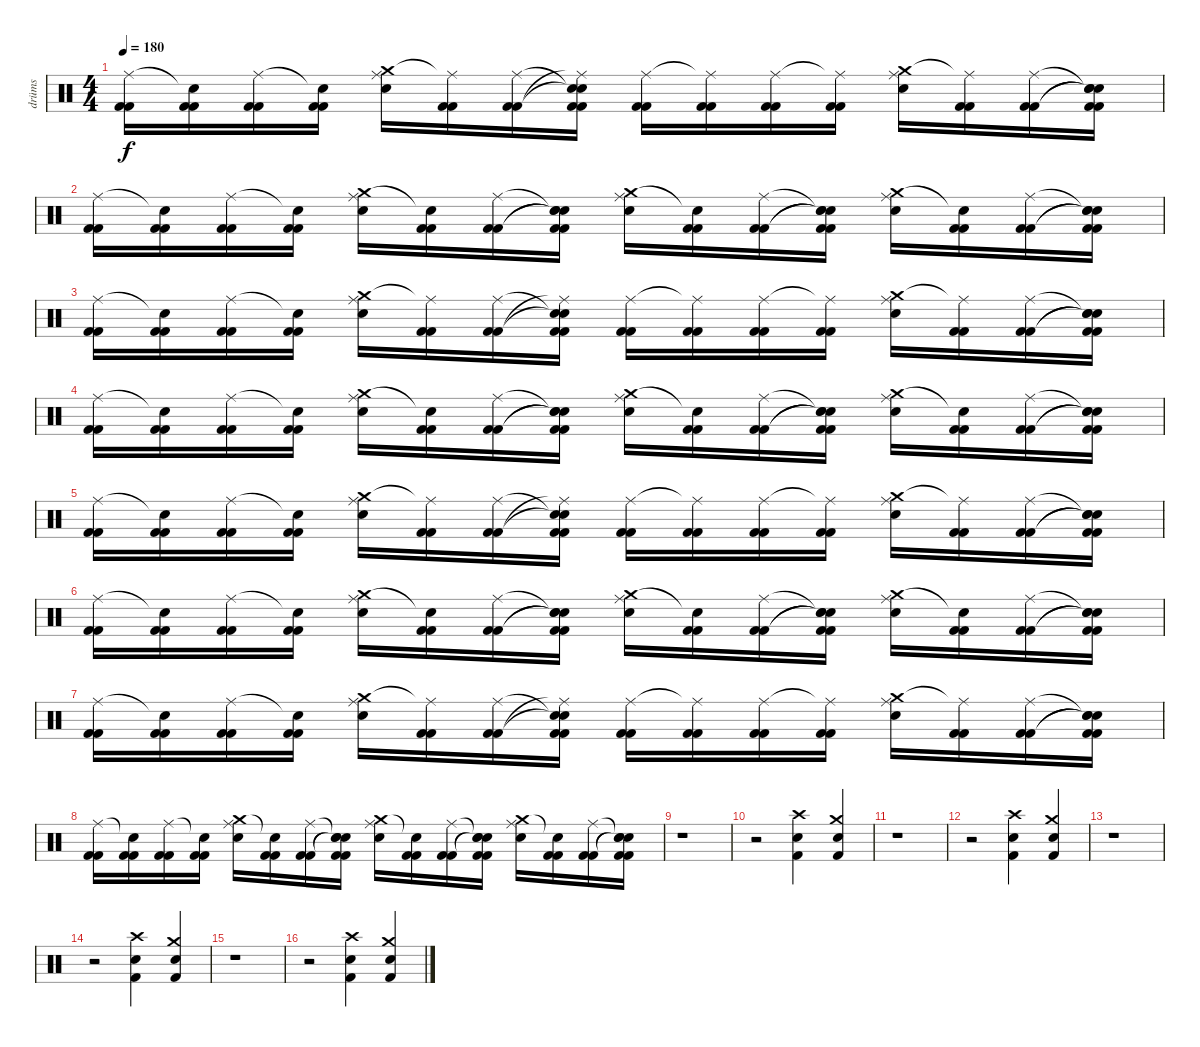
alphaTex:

\track ("drüms" "drüms") {instrument percussion}
\staff {score}
\articulation defaults
\ts (4 4)
\tempo 180
\clef neutral
\ks c
("Ride (middle)" "Kick (hit) 2" "Kick (hit) 2").16{dy f} ("Snare (hit)"{t} "Kick (hit) 2" "Kick (hit) 2").16 ("Ride (middle)" "Kick (hit) 2" "Kick (hit) 2").16 ("Snare (hit)"{t} "Kick (hit) 2" "Kick (hit) 2").16 ("Crash medium (hit)" "Electric Snare (hit)" "Ride (middle)").16 ("Ride (middle)"{t} "Kick (hit) 2" "Kick (hit) 2").16 ("Ride (middle)" "Kick (hit) 2" "Kick (hit) 2").16 ("Snare (hit)"{t} "Snare (hit)"{t} "Ride (middle)"{t} "Kick (hit) 2" "Kick (hit) 2").16 ("Ride (middle)" "Kick (hit) 2" "Kick (hit) 2").16 ("Ride (middle)"{t} "Kick (hit) 2" "Kick (hit) 2").16 ("Ride (middle)" "Kick (hit) 2" "Kick (hit) 2").16 ("Ride (middle)"{t} "Kick (hit) 2" "Kick (hit) 2").16 ("Crash medium (hit)" "Electric Snare (hit)" "Ride (middle)").16 ("Ride (middle)"{t} "Kick (hit) 2" "Kick (hit) 2").16 ("Ride (middle)" "Kick (hit) 2" "Kick (hit) 2").16 ("Snare (hit)"{t} "Snare (hit)"{t} "Snare (hit)"{t} "Kick (hit) 2" "Kick (hit) 2").16 |
("Ride (middle)" "Kick (hit) 2" "Kick (hit) 2").16 ("Snare (hit)"{t} "Kick (hit) 2" "Kick (hit) 2").16 ("Ride (middle)" "Kick (hit) 2" "Kick (hit) 2").16 ("Snare (hit)"{t} "Kick (hit) 2" "Kick (hit) 2").16 ("Crash medium (hit)" "Electric Snare (hit)" "Ride (middle)").16 ("Snare (hit)"{t} "Kick (hit) 2" "Kick (hit) 2").16 ("Ride (middle)" "Kick (hit) 2" "Kick (hit) 2").16 ("Snare (hit)"{t} "Snare (hit)"{t} "Snare (hit)"{t} "Kick (hit) 2" "Kick (hit) 2").16 ("Crash medium (hit)" "Electric Snare (hit)" "Ride (middle)").16 ("Snare (hit)"{t} "Kick (hit) 2" "Kick (hit) 2").16 ("Ride (middle)" "Kick (hit) 2" "Kick (hit) 2").16 ("Snare (hit)"{t} "Snare (hit)"{t} "Snare (hit)"{t} "Kick (hit) 2" "Kick (hit) 2").16 ("Crash medium (hit)" "Electric Snare (hit)" "Ride (middle)").16 ("Snare (hit)"{t} "Kick (hit) 2" "Kick (hit) 2").16 ("Ride (middle)" "Kick (hit) 2" "Kick (hit) 2").16 ("Snare (hit)"{t} "Snare (hit)"{t} "Snare (hit)"{t} "Kick (hit) 2" "Kick (hit) 2").16 |
("Ride (middle)" "Kick (hit) 2" "Kick (hit) 2").16 ("Snare (hit)"{t} "Kick (hit) 2" "Kick (hit) 2").16 ("Ride (middle)" "Kick (hit) 2" "Kick (hit) 2").16 ("Snare (hit)"{t} "Kick (hit) 2" "Kick (hit) 2").16 ("Crash medium (hit)" "Electric Snare (hit)" "Ride (middle)").16 ("Ride (middle)"{t} "Kick (hit) 2" "Kick (hit) 2").16 ("Ride (middle)" "Kick (hit) 2" "Kick (hit) 2").16 ("Snare (hit)"{t} "Snare (hit)"{t} "Ride (middle)"{t} "Kick (hit) 2" "Kick (hit) 2").16 ("Ride (middle)" "Kick (hit) 2" "Kick (hit) 2").16 ("Ride (middle)"{t} "Kick (hit) 2" "Kick (hit) 2").16 ("Ride (middle)" "Kick (hit) 2" "Kick (hit) 2").16 ("Ride (middle)"{t} "Kick (hit) 2" "Kick (hit) 2").16 ("Crash medium (hit)" "Electric Snare (hit)" "Ride (middle)").16 ("Ride (middle)"{t} "Kick (hit) 2" "Kick (hit) 2").16 ("Ride (middle)" "Kick (hit) 2" "Kick (hit) 2").16 ("Snare (hit)"{t} "Snare (hit)"{t} "Snare (hit)"{t} "Kick (hit) 2" "Kick (hit) 2").16 |
("Ride (middle)" "Kick (hit) 2" "Kick (hit) 2").16 ("Snare (hit)"{t} "Kick (hit) 2" "Kick (hit) 2").16 ("Ride (middle)" "Kick (hit) 2" "Kick (hit) 2").16 ("Snare (hit)"{t} "Kick (hit) 2" "Kick (hit) 2").16 ("Crash medium (hit)" "Electric Snare (hit)" "Ride (middle)").16 ("Snare (hit)"{t} "Kick (hit) 2" "Kick (hit) 2").16 ("Ride (middle)" "Kick (hit) 2" "Kick (hit) 2").16 ("Snare (hit)"{t} "Snare (hit)"{t} "Snare (hit)"{t} "Kick (hit) 2" "Kick (hit) 2").16 ("Crash medium (hit)" "Electric Snare (hit)" "Ride (middle)").16 ("Snare (hit)"{t} "Kick (hit) 2" "Kick (hit) 2").16 ("Ride (middle)" "Kick (hit) 2" "Kick (hit) 2").16 ("Snare (hit)"{t} "Snare (hit)"{t} "Snare (hit)"{t} "Kick (hit) 2" "Kick (hit) 2").16 ("Crash medium (hit)" "Electric Snare (hit)" "Ride (middle)").16 ("Snare (hit)"{t} "Kick (hit) 2" "Kick (hit) 2").16 ("Ride (middle)" "Kick (hit) 2" "Kick (hit) 2").16 ("Snare (hit)"{t} "Snare (hit)"{t} "Snare (hit)"{t} "Kick (hit) 2" "Kick (hit) 2").16 |
("Ride (middle)" "Kick (hit) 2" "Kick (hit) 2").16 ("Snare (hit)"{t} "Kick (hit) 2" "Kick (hit) 2").16 ("Ride (middle)" "Kick (hit) 2" "Kick (hit) 2").16 ("Snare (hit)"{t} "Kick (hit) 2" "Kick (hit) 2").16 ("Crash medium (hit)" "Electric Snare (hit)" "Ride (middle)").16 ("Ride (middle)"{t} "Kick (hit) 2" "Kick (hit) 2").16 ("Ride (middle)" "Kick (hit) 2" "Kick (hit) 2").16 ("Snare (hit)"{t} "Snare (hit)"{t} "Ride (middle)"{t} "Kick (hit) 2" "Kick (hit) 2").16 ("Ride (middle)" "Kick (hit) 2" "Kick (hit) 2").16 ("Ride (middle)"{t} "Kick (hit) 2" "Kick (hit) 2").16 ("Ride (middle)" "Kick (hit) 2" "Kick (hit) 2").16 ("Ride (middle)"{t} "Kick (hit) 2" "Kick (hit) 2").16 ("Crash medium (hit)" "Electric Snare (hit)" "Ride (middle)").16 ("Ride (middle)"{t} "Kick (hit) 2" "Kick (hit) 2").16 ("Ride (middle)" "Kick (hit) 2" "Kick (hit) 2").16 ("Snare (hit)"{t} "Snare (hit)"{t} "Snare (hit)"{t} "Kick (hit) 2" "Kick (hit) 2").16 |
("Ride (middle)" "Kick (hit) 2" "Kick (hit) 2").16 ("Snare (hit)"{t} "Kick (hit) 2" "Kick (hit) 2").16 ("Ride (middle)" "Kick (hit) 2" "Kick (hit) 2").16 ("Snare (hit)"{t} "Kick (hit) 2" "Kick (hit) 2").16 ("Crash medium (hit)" "Electric Snare (hit)" "Ride (middle)").16 ("Snare (hit)"{t} "Kick (hit) 2" "Kick (hit) 2").16 ("Ride (middle)" "Kick (hit) 2" "Kick (hit) 2").16 ("Snare (hit)"{t} "Snare (hit)"{t} "Snare (hit)"{t} "Kick (hit) 2" "Kick (hit) 2").16 ("Crash medium (hit)" "Electric Snare (hit)" "Ride (middle)").16 ("Snare (hit)"{t} "Kick (hit) 2" "Kick (hit) 2").16 ("Ride (middle)" "Kick (hit) 2" "Kick (hit) 2").16 ("Snare (hit)"{t} "Snare (hit)"{t} "Snare (hit)"{t} "Kick (hit) 2" "Kick (hit) 2").16 ("Crash medium (hit)" "Electric Snare (hit)" "Ride (middle)").16 ("Snare (hit)"{t} "Kick (hit) 2" "Kick (hit) 2").16 ("Ride (middle)" "Kick (hit) 2" "Kick (hit) 2").16 ("Snare (hit)"{t} "Snare (hit)"{t} "Snare (hit)"{t} "Kick (hit) 2" "Kick (hit) 2").16 |
("Ride (middle)" "Kick (hit) 2" "Kick (hit) 2").16 ("Snare (hit)"{t} "Kick (hit) 2" "Kick (hit) 2").16 ("Ride (middle)" "Kick (hit) 2" "Kick (hit) 2").16 ("Snare (hit)"{t} "Kick (hit) 2" "Kick (hit) 2").16 ("Crash medium (hit)" "Electric Snare (hit)" "Ride (middle)").16 ("Ride (middle)"{t} "Kick (hit) 2" "Kick (hit) 2").16 ("Ride (middle)" "Kick (hit) 2" "Kick (hit) 2").16 ("Snare (hit)"{t} "Snare (hit)"{t} "Ride (middle)"{t} "Kick (hit) 2" "Kick (hit) 2").16 ("Ride (middle)" "Kick (hit) 2" "Kick (hit) 2").16 ("Ride (middle)"{t} "Kick (hit) 2" "Kick (hit) 2").16 ("Ride (middle)" "Kick (hit) 2" "Kick (hit) 2").16 ("Ride (middle)"{t} "Kick (hit) 2" "Kick (hit) 2").16 ("Crash medium (hit)" "Electric Snare (hit)" "Ride (middle)").16 ("Ride (middle)"{t} "Kick (hit) 2" "Kick (hit) 2").16 ("Ride (middle)" "Kick (hit) 2" "Kick (hit) 2").16 ("Snare (hit)"{t} "Snare (hit)"{t} "Snare (hit)"{t} "Kick (hit) 2" "Kick (hit) 2").16 |
("Ride (middle)" "Kick (hit) 2" "Kick (hit) 2").16 ("Snare (hit)"{t} "Kick (hit) 2" "Kick (hit) 2").16 ("Ride (middle)" "Kick (hit) 2" "Kick (hit) 2").16 ("Snare (hit)"{t} "Kick (hit) 2" "Kick (hit) 2").16 ("Crash medium (hit)" "Electric Snare (hit)" "Ride (middle)").16 ("Snare (hit)"{t} "Kick (hit) 2" "Kick (hit) 2").16 ("Ride (middle)" "Kick (hit) 2" "Kick (hit) 2").16 ("Snare (hit)"{t} "Snare (hit)"{t} "Snare (hit)"{t} "Kick (hit) 2" "Kick (hit) 2").16 ("Crash medium (hit)" "Electric Snare (hit)" "Ride (middle)").16 ("Snare (hit)"{t} "Kick (hit) 2" "Kick (hit) 2").16 ("Ride (middle)" "Kick (hit) 2" "Kick (hit) 2").16 ("Snare (hit)"{t} "Snare (hit)"{t} "Snare (hit)"{t} "Kick (hit) 2" "Kick (hit) 2").16 ("Crash medium (hit)" "Electric Snare (hit)" "Ride (middle)").16 ("Snare (hit)"{t} "Kick (hit) 2" "Kick (hit) 2").16 ("Ride (middle)" "Kick (hit) 2" "Kick (hit) 2").16 ("Snare (hit)"{t} "Snare (hit)"{t} "Snare (hit)"{t} "Kick (hit) 2" "Kick (hit) 2").16 |
r.1 |
r.2 ("Crash high (hit)" "Electric Snare (hit)" "Kick (hit) 2").4 ("Crash medium (hit)" "Electric Snare (hit)" "Kick (hit) 2").4 |
r.1 |
r.2 ("Crash high (hit)" "Electric Snare (hit)" "Kick (hit) 2").4 ("Crash medium (hit)" "Electric Snare (hit)" "Kick (hit) 2").4 |
r.1 |
r.2 ("Crash high (hit)" "Electric Snare (hit)" "Kick (hit) 2").4 ("Crash medium (hit)" "Electric Snare (hit)" "Kick (hit) 2").4 |
r.1 |
r.2 ("Crash high (hit)" "Electric Snare (hit)" "Kick (hit) 2").4 ("Crash medium (hit)" "Electric Snare (hit)" "Kick (hit) 2").4
